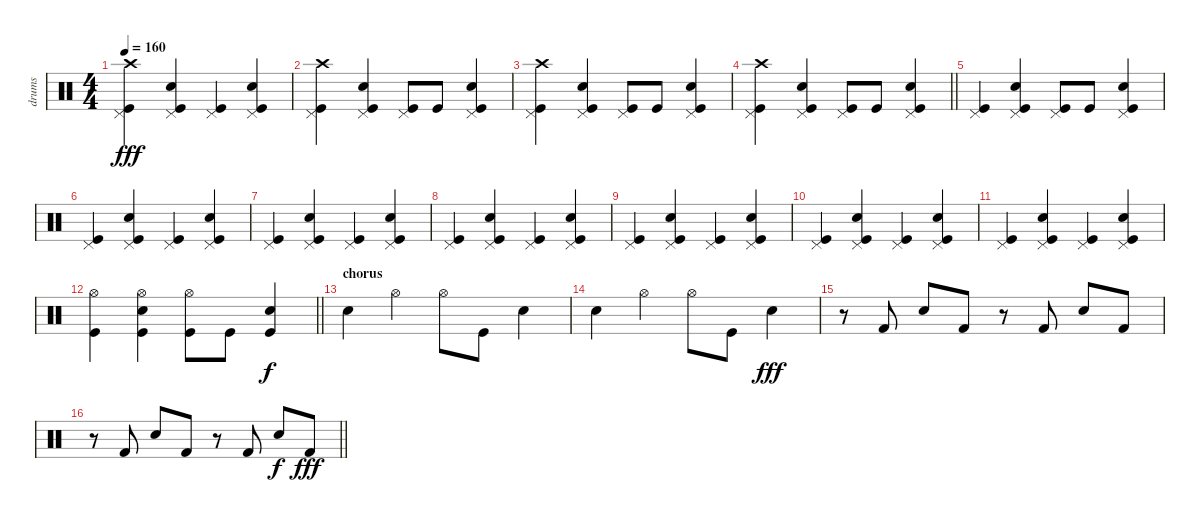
\track ("drums" "drums") {instrument percussion}
\staff {score}
\articulation defaults
\ts (4 4)
\tempo 160
\clef neutral
\ks c
("Crash high (hit)" "Pedal Hi-Hat (hit)" "Kick (hit)").4{dy fff} ("Snare (hit) 2" "Pedal Hi-Hat (hit)" "Kick (hit)").4 ("Pedal Hi-Hat (hit)" "Kick (hit)").4 ("Snare (hit) 2" "Pedal Hi-Hat (hit)" "Kick (hit)").4 |
("Crash high (hit)" "Pedal Hi-Hat (hit)" "Kick (hit)").4 ("Snare (hit) 2" "Pedal Hi-Hat (hit)" "Kick (hit)").4 ("Pedal Hi-Hat (hit)" "Kick (hit)").8 "Kick (hit)".8 ("Snare (hit) 2" "Pedal Hi-Hat (hit)" "Kick (hit)").4 |
("Crash high (hit)" "Pedal Hi-Hat (hit)" "Kick (hit)").4 ("Snare (hit) 2" "Pedal Hi-Hat (hit)" "Kick (hit)").4 ("Pedal Hi-Hat (hit)" "Kick (hit)").8 "Kick (hit)".8 ("Snare (hit) 2" "Pedal Hi-Hat (hit)" "Kick (hit)").4 |
\barLineRight lightlight
("Crash high (hit)" "Pedal Hi-Hat (hit)" "Kick (hit)").4 ("Snare (hit) 2" "Pedal Hi-Hat (hit)" "Kick (hit)").4 ("Pedal Hi-Hat (hit)" "Kick (hit)").8 "Kick (hit)".8 ("Snare (hit) 2" "Pedal Hi-Hat (hit)" "Kick (hit)").4 |
("Pedal Hi-Hat (hit)" "Kick (hit)").4 ("Snare (hit) 2" "Pedal Hi-Hat (hit)" "Kick (hit)").4 ("Pedal Hi-Hat (hit)" "Kick (hit)").8 "Kick (hit)".8 ("Snare (hit) 2" "Pedal Hi-Hat (hit)" "Kick (hit)").4 |
("Pedal Hi-Hat (hit)" "Kick (hit)").4 ("Snare (hit) 2" "Pedal Hi-Hat (hit)" "Kick (hit)").4 ("Pedal Hi-Hat (hit)" "Kick (hit)").4 ("Snare (hit) 2" "Pedal Hi-Hat (hit)" "Kick (hit)").4 |
("Pedal Hi-Hat (hit)" "Kick (hit)").4 ("Snare (hit) 2" "Pedal Hi-Hat (hit)" "Kick (hit)").4 ("Pedal Hi-Hat (hit)" "Kick (hit)").4 ("Snare (hit) 2" "Pedal Hi-Hat (hit)" "Kick (hit)").4 |
("Pedal Hi-Hat (hit)" "Kick (hit)").4 ("Snare (hit) 2" "Pedal Hi-Hat (hit)" "Kick (hit)").4 ("Pedal Hi-Hat (hit)" "Kick (hit)").4 ("Snare (hit) 2" "Pedal Hi-Hat (hit)" "Kick (hit)").4 |
("Pedal Hi-Hat (hit)" "Kick (hit)").4 ("Snare (hit) 2" "Pedal Hi-Hat (hit)" "Kick (hit)").4 ("Pedal Hi-Hat (hit)" "Kick (hit)").4 ("Snare (hit) 2" "Pedal Hi-Hat (hit)" "Kick (hit)").4 |
("Pedal Hi-Hat (hit)" "Kick (hit)").4 ("Snare (hit) 2" "Pedal Hi-Hat (hit)" "Kick (hit)").4 ("Pedal Hi-Hat (hit)" "Kick (hit)").4 ("Snare (hit) 2" "Pedal Hi-Hat (hit)" "Kick (hit)").4 |
("Pedal Hi-Hat (hit)" "Kick (hit)").4 ("Snare (hit) 2" "Pedal Hi-Hat (hit)" "Kick (hit)").4 ("Pedal Hi-Hat (hit)" "Kick (hit)").4 ("Snare (hit) 2" "Pedal Hi-Hat (hit)" "Kick (hit)").4 |
\barLineRight lightlight
("Hi-Hat (open)" "Kick (hit)").4 ("Snare (hit) 2" "Hi-Hat (open)" "Kick (hit)").4 ("Hi-Hat (open)" "Kick (hit)").8 "Kick (hit)".8 ("Electric Snare (hit)" "Kick (hit)").4{dy f} |
\section ("" "chorus")
"Snare (hit) 2".4 "Hi-Hat (open)".4 "Hi-Hat (open)".8 "Kick (hit)".8 "Snare (hit) 2".4 |
"Snare (hit) 2".4 "Hi-Hat (open)".4 "Hi-Hat (open)".8 "Kick (hit)".8 "Snare (hit) 2".4{dy fff} |
r.8 "Kick (hit) 2".8 "Snare (hit) 2".8 "Kick (hit) 2".8 r.8 "Kick (hit) 2".8 "Snare (hit) 2".8 "Kick (hit) 2".8 |
\barLineRight lightlight
r.8 "Kick (hit) 2".8 "Snare (hit) 2".8 "Kick (hit) 2".8 r.8 "Kick (hit) 2".8 "Snare (hit) 2".8{dy f} "Kick (hit) 2".8{dy fff}
